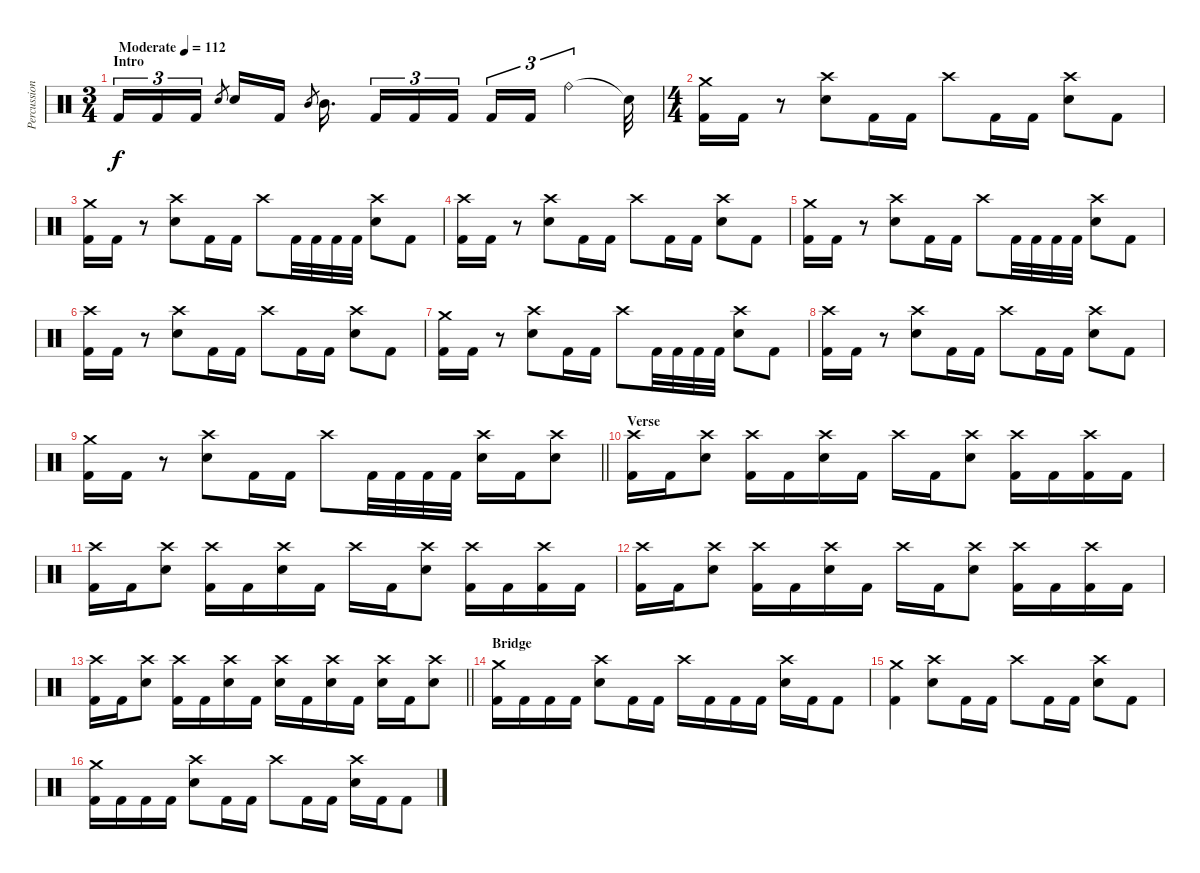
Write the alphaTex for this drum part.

\track ("Percussion" "Percussion") {instrument percussion}
\staff {score}
\articulation defaults
\ts (3 4)
\section ("" "Intro")
\tempo (112 "Moderate")
\clef neutral
\ks c "Kick (hit) 2".16{tu (3 2) dy f} "Kick (hit) 2".16{tu (3 2)} "Kick (hit) 2".16{tu (3 2)} "Electric Snare (hit)".8{gr beam splitsecondary} "Electric Snare (hit)".16 "Kick (hit) 2".16 "Mid Tom (hit)".8{gr} "Mid Tom (hit)".16{d beam splitsecondary} "Kick (hit) 2".16{tu (3 2)} "Kick (hit) 2".16{tu (3 2)} "Kick (hit) 2".16{tu (3 2) beam splitsecondary} "Kick (hit) 2".16{tu (3 2)} "Kick (hit) 2".16{tu (3 2)} "Ride (bell)".4{tu (3 2)} "Snare (hit)"{t}.32
|
\ts (4 4)
("Crash medium (hit)" "Kick (hit) 2").16 "Kick (hit) 2".16 r.8 ("Crash high (hit)" "Electric Snare (hit)").8 "Kick (hit) 2".16 "Kick (hit) 2".16 "Crash high (hit)".8 "Kick (hit) 2".16 "Kick (hit) 2".16 ("Crash high (hit)" "Electric Snare (hit)").8 "Kick (hit) 2".8 |
("Crash medium (hit)" "Kick (hit) 2").16 "Kick (hit) 2".16 r.8 ("Crash high (hit)" "Electric Snare (hit)").8 "Kick (hit) 2".16 "Kick (hit) 2".16 "Crash high (hit)".8 "Kick (hit) 2".32 "Kick (hit) 2".32 "Kick (hit) 2".32 "Kick (hit) 2".32 ("Crash high (hit)" "Electric Snare (hit)").8 "Kick (hit) 2".8 |
("Crash high (hit)" "Kick (hit) 2").16 "Kick (hit) 2".16 r.8 ("Crash high (hit)" "Electric Snare (hit)").8 "Kick (hit) 2".16 "Kick (hit) 2".16 "Crash high (hit)".8 "Kick (hit) 2".16 "Kick (hit) 2".16 ("Crash high (hit)" "Electric Snare (hit)").8 "Kick (hit) 2".8 |
("Crash medium (hit)" "Kick (hit) 2").16 "Kick (hit) 2".16 r.8 ("Crash high (hit)" "Electric Snare (hit)").8 "Kick (hit) 2".16 "Kick (hit) 2".16 "Crash high (hit)".8 "Kick (hit) 2".32 "Kick (hit) 2".32 "Kick (hit) 2".32 "Kick (hit) 2".32 ("Crash high (hit)" "Electric Snare (hit)").8 "Kick (hit) 2".8 |
("Crash high (hit)" "Kick (hit) 2").16 "Kick (hit) 2".16 r.8 ("Crash high (hit)" "Electric Snare (hit)").8 "Kick (hit) 2".16 "Kick (hit) 2".16 "Crash high (hit)".8 "Kick (hit) 2".16 "Kick (hit) 2".16 ("Crash high (hit)" "Electric Snare (hit)").8 "Kick (hit) 2".8 |
("Crash medium (hit)" "Kick (hit) 2").16 "Kick (hit) 2".16 r.8 ("Crash high (hit)" "Electric Snare (hit)").8 "Kick (hit) 2".16 "Kick (hit) 2".16 "Crash high (hit)".8 "Kick (hit) 2".32 "Kick (hit) 2".32 "Kick (hit) 2".32 "Kick (hit) 2".32 ("Crash high (hit)" "Electric Snare (hit)").8 "Kick (hit) 2".8 |
("Crash high (hit)" "Kick (hit) 2").16 "Kick (hit) 2".16 r.8 ("Crash high (hit)" "Electric Snare (hit)").8 "Kick (hit) 2".16 "Kick (hit) 2".16 "Crash high (hit)".8 "Kick (hit) 2".16 "Kick (hit) 2".16 ("Crash high (hit)" "Electric Snare (hit)").8 "Kick (hit) 2".8 |
\barLineRight lightlight
("Crash medium (hit)" "Kick (hit) 2").16 "Kick (hit) 2".16 r.8 ("Crash high (hit)" "Electric Snare (hit)").8 "Kick (hit) 2".16 "Kick (hit) 2".16 "Crash high (hit)".8 "Kick (hit) 2".32 "Kick (hit) 2".32 "Kick (hit) 2".32 "Kick (hit) 2".32 ("Crash high (hit)" "Electric Snare (hit)").16 "Kick (hit) 2".16 ("Crash high (hit)" "Electric Snare (hit)").8 |
\section ("" "Verse")
("Crash high (hit)" "Kick (hit) 2").16 "Kick (hit) 2".16 ("Crash high (hit)" "Electric Snare (hit)").8 ("Crash high (hit)" "Kick (hit) 2").16 "Kick (hit) 2".16 ("Crash high (hit)" "Electric Snare (hit)").16 "Kick (hit) 2".16 "Crash high (hit)".16 "Kick (hit) 2".16 ("Crash high (hit)" "Electric Snare (hit)").8 ("Crash high (hit)" "Kick (hit) 2").16 "Kick (hit) 2".16 ("Crash high (hit)" "Kick (hit) 2").16 "Kick (hit) 2".16 |
("Crash high (hit)" "Kick (hit) 2").16 "Kick (hit) 2".16 ("Crash high (hit)" "Electric Snare (hit)").8 ("Crash high (hit)" "Kick (hit) 2").16 "Kick (hit) 2".16 ("Crash high (hit)" "Electric Snare (hit)").16 "Kick (hit) 2".16 "Crash high (hit)".16 "Kick (hit) 2".16 ("Crash high (hit)" "Electric Snare (hit)").8 ("Crash high (hit)" "Kick (hit) 2").16 "Kick (hit) 2".16 ("Crash high (hit)" "Kick (hit) 2").16 "Kick (hit) 2".16 |
("Crash high (hit)" "Kick (hit) 2").16 "Kick (hit) 2".16 ("Crash high (hit)" "Electric Snare (hit)").8 ("Crash high (hit)" "Kick (hit) 2").16 "Kick (hit) 2".16 ("Crash high (hit)" "Electric Snare (hit)").16 "Kick (hit) 2".16 "Crash high (hit)".16 "Kick (hit) 2".16 ("Crash high (hit)" "Electric Snare (hit)").8 ("Crash high (hit)" "Kick (hit) 2").16 "Kick (hit) 2".16 ("Crash high (hit)" "Kick (hit) 2").16 "Kick (hit) 2".16 |
\barLineRight lightlight
("Crash high (hit)" "Kick (hit) 2").16 "Kick (hit) 2".16 ("Crash high (hit)" "Electric Snare (hit)").8 ("Crash high (hit)" "Kick (hit) 2").16 "Kick (hit) 2".16 ("Crash high (hit)" "Electric Snare (hit)").16 "Kick (hit) 2".16 ("Crash high (hit)" "Electric Snare (hit)").16 "Kick (hit) 2".16 ("Crash high (hit)" "Electric Snare (hit)").16 "Kick (hit) 2".16 ("Crash high (hit)" "Electric Snare (hit)").16 "Kick (hit) 2".16 ("Crash high (hit)" "Electric Snare (hit)").8 |
\section ("" "Bridge")
("Crash medium (hit)" "Kick (hit) 2").16 "Kick (hit) 2".16 "Kick (hit) 2".16 "Kick (hit) 2".16 ("Crash high (hit)" "Electric Snare (hit)").8 "Kick (hit) 2".16 "Kick (hit) 2".16 "Crash high (hit)".16 "Kick (hit) 2".16 "Kick (hit) 2".16 "Kick (hit) 2".16 ("Crash high (hit)" "Electric Snare (hit)").16 "Kick (hit) 2".16 "Kick (hit) 2".8 |
("Crash medium (hit)" "Kick (hit) 2").4 ("Crash high (hit)" "Electric Snare (hit)").8 "Kick (hit) 2".16 "Kick (hit) 2".16 "Crash high (hit)".8 "Kick (hit) 2".16 "Kick (hit) 2".16 ("Crash high (hit)" "Electric Snare (hit)").8 "Kick (hit) 2".8 |
("Crash medium (hit)" "Kick (hit) 2").16 "Kick (hit) 2".16 "Kick (hit) 2".16 "Kick (hit) 2".16 ("Crash high (hit)" "Electric Snare (hit)").8 "Kick (hit) 2".16 "Kick (hit) 2".16 "Crash high (hit)".8 "Kick (hit) 2".16 "Kick (hit) 2".16 ("Crash high (hit)" "Electric Snare (hit)").16 "Kick (hit) 2".16 "Kick (hit) 2".8
